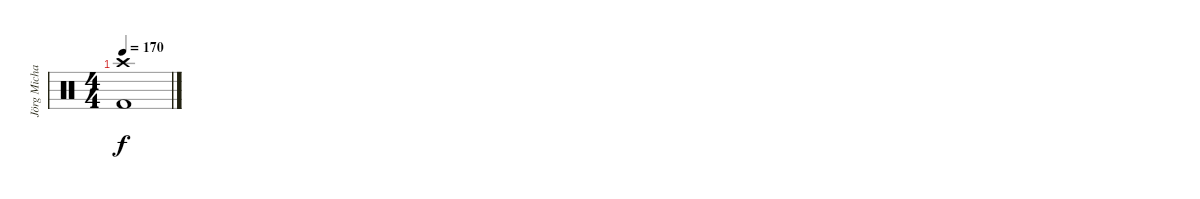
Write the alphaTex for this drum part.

\track ("Jörg Michael" "Jörg Micha") {instrument percussion}
\staff {score}
\articulation defaults
\ts (4 4)
\tempo 170
\clef neutral
\ks c
("Crash high (hit)" "Kick (hit) 2").1{dy f}
